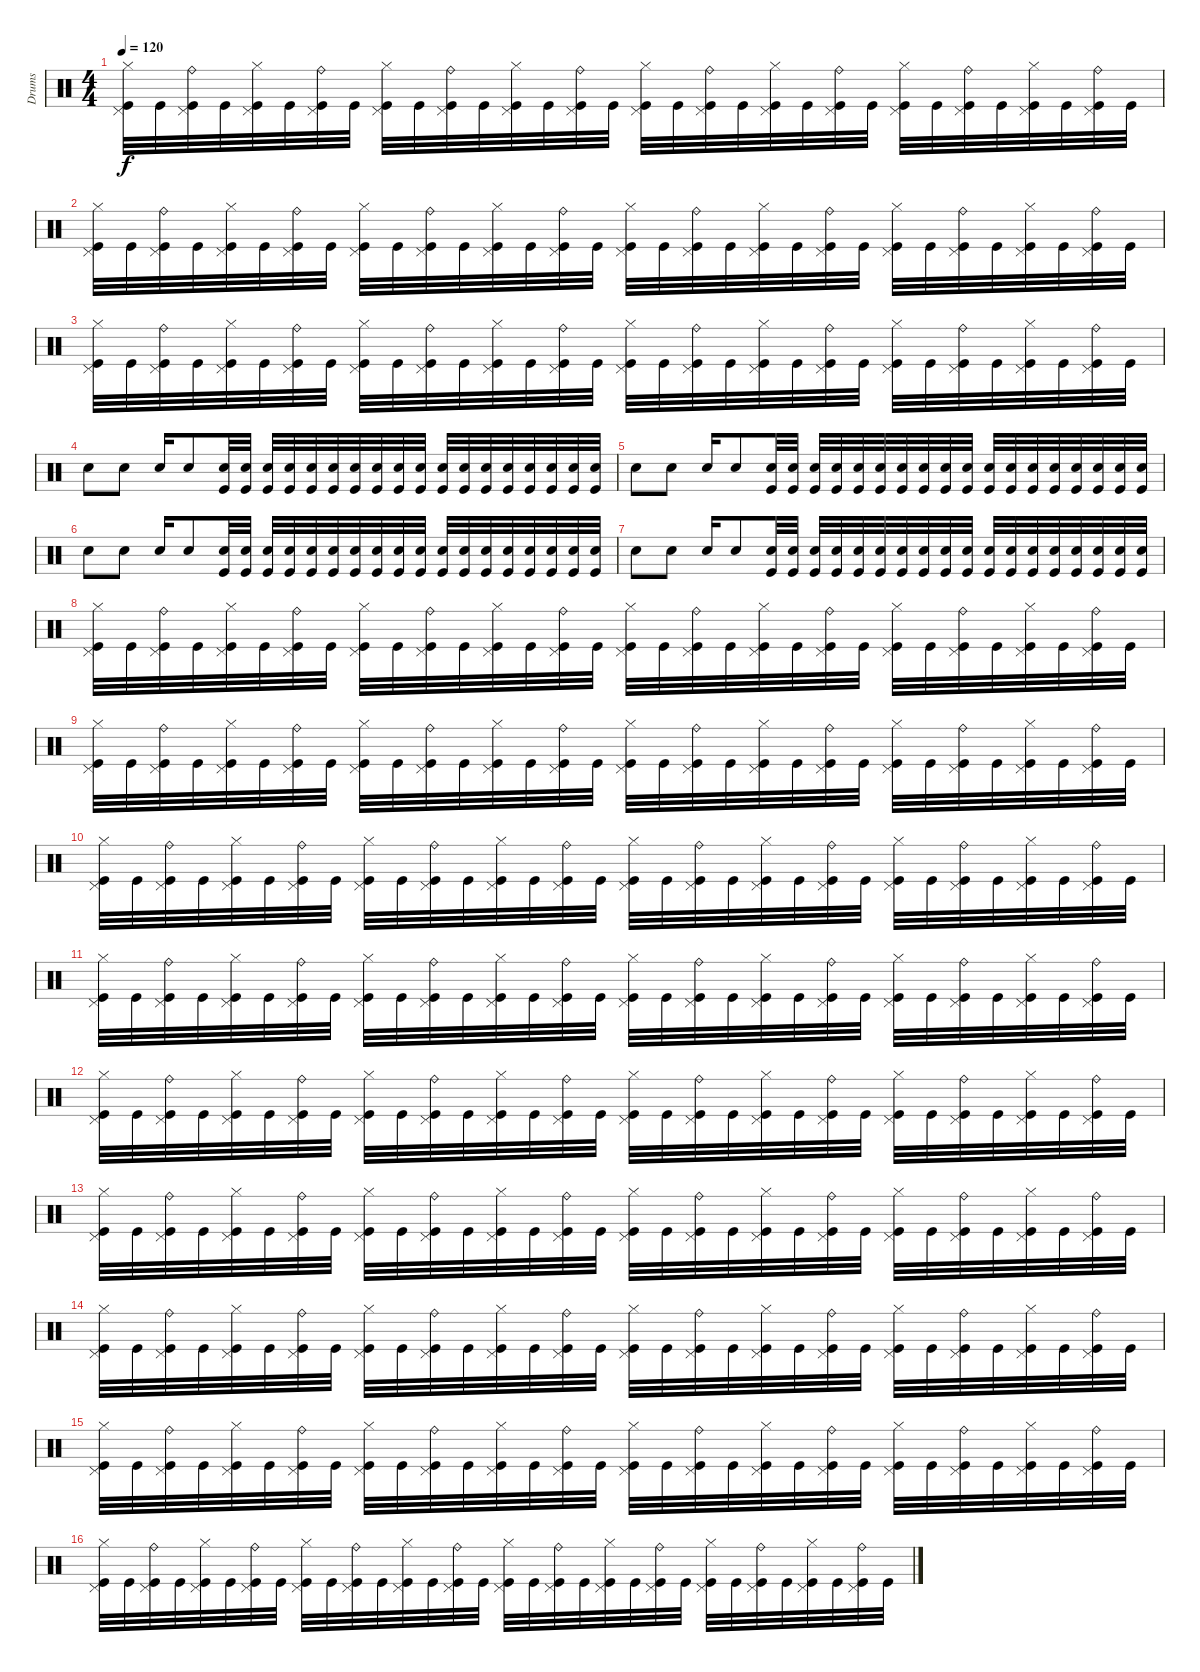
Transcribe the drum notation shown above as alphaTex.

\track ("Drums" "Drums") {instrument percussion}
\staff {score}
\articulation defaults
\ts (4 4)
\tempo 120
\clef neutral
\ks c
("Hi-Hat (closed)" "Pedal Hi-Hat (hit)" "Kick (hit)").32{dy f} "Kick (hit)".32 ("Ride (bell)" "Pedal Hi-Hat (hit)" "Kick (hit)").32 "Kick (hit)".32 ("Hi-Hat (closed)" "Pedal Hi-Hat (hit)" "Kick (hit)").32 "Kick (hit)".32 ("Ride (bell)" "Pedal Hi-Hat (hit)" "Kick (hit)").32 "Kick (hit)".32 ("Hi-Hat (closed)" "Pedal Hi-Hat (hit)" "Kick (hit)").32 "Kick (hit)".32 ("Ride (bell)" "Pedal Hi-Hat (hit)" "Kick (hit)").32 "Kick (hit)".32 ("Hi-Hat (closed)" "Pedal Hi-Hat (hit)" "Kick (hit)").32 "Kick (hit)".32 ("Ride (bell)" "Pedal Hi-Hat (hit)" "Kick (hit)").32 "Kick (hit)".32 ("Hi-Hat (closed)" "Pedal Hi-Hat (hit)" "Kick (hit)").32 "Kick (hit)".32 ("Ride (bell)" "Pedal Hi-Hat (hit)" "Kick (hit)").32 "Kick (hit)".32 ("Hi-Hat (closed)" "Pedal Hi-Hat (hit)" "Kick (hit)").32 "Kick (hit)".32 ("Ride (bell)" "Pedal Hi-Hat (hit)" "Kick (hit)").32 "Kick (hit)".32 ("Hi-Hat (closed)" "Pedal Hi-Hat (hit)" "Kick (hit)").32 "Kick (hit)".32 ("Ride (bell)" "Pedal Hi-Hat (hit)" "Kick (hit)").32 "Kick (hit)".32 ("Hi-Hat (closed)" "Pedal Hi-Hat (hit)" "Kick (hit)").32 "Kick (hit)".32 ("Ride (bell)" "Pedal Hi-Hat (hit)" "Kick (hit)").32 "Kick (hit)".32 |
("Hi-Hat (closed)" "Pedal Hi-Hat (hit)" "Kick (hit)").32 "Kick (hit)".32 ("Ride (bell)" "Pedal Hi-Hat (hit)" "Kick (hit)").32 "Kick (hit)".32 ("Hi-Hat (closed)" "Pedal Hi-Hat (hit)" "Kick (hit)").32 "Kick (hit)".32 ("Ride (bell)" "Pedal Hi-Hat (hit)" "Kick (hit)").32 "Kick (hit)".32 ("Hi-Hat (closed)" "Pedal Hi-Hat (hit)" "Kick (hit)").32 "Kick (hit)".32 ("Ride (bell)" "Pedal Hi-Hat (hit)" "Kick (hit)").32 "Kick (hit)".32 ("Hi-Hat (closed)" "Pedal Hi-Hat (hit)" "Kick (hit)").32 "Kick (hit)".32 ("Ride (bell)" "Pedal Hi-Hat (hit)" "Kick (hit)").32 "Kick (hit)".32 ("Hi-Hat (closed)" "Pedal Hi-Hat (hit)" "Kick (hit)").32 "Kick (hit)".32 ("Ride (bell)" "Pedal Hi-Hat (hit)" "Kick (hit)").32 "Kick (hit)".32 ("Hi-Hat (closed)" "Pedal Hi-Hat (hit)" "Kick (hit)").32 "Kick (hit)".32 ("Ride (bell)" "Pedal Hi-Hat (hit)" "Kick (hit)").32 "Kick (hit)".32 ("Hi-Hat (closed)" "Pedal Hi-Hat (hit)" "Kick (hit)").32 "Kick (hit)".32 ("Ride (bell)" "Pedal Hi-Hat (hit)" "Kick (hit)").32 "Kick (hit)".32 ("Hi-Hat (closed)" "Pedal Hi-Hat (hit)" "Kick (hit)").32 "Kick (hit)".32 ("Ride (bell)" "Pedal Hi-Hat (hit)" "Kick (hit)").32 "Kick (hit)".32 |
("Hi-Hat (closed)" "Pedal Hi-Hat (hit)" "Kick (hit)").32 "Kick (hit)".32 ("Ride (bell)" "Pedal Hi-Hat (hit)" "Kick (hit)").32 "Kick (hit)".32 ("Hi-Hat (closed)" "Pedal Hi-Hat (hit)" "Kick (hit)").32 "Kick (hit)".32 ("Ride (bell)" "Pedal Hi-Hat (hit)" "Kick (hit)").32 "Kick (hit)".32 ("Hi-Hat (closed)" "Pedal Hi-Hat (hit)" "Kick (hit)").32 "Kick (hit)".32 ("Ride (bell)" "Pedal Hi-Hat (hit)" "Kick (hit)").32 "Kick (hit)".32 ("Hi-Hat (closed)" "Pedal Hi-Hat (hit)" "Kick (hit)").32 "Kick (hit)".32 ("Ride (bell)" "Pedal Hi-Hat (hit)" "Kick (hit)").32 "Kick (hit)".32 ("Hi-Hat (closed)" "Pedal Hi-Hat (hit)" "Kick (hit)").32 "Kick (hit)".32 ("Ride (bell)" "Pedal Hi-Hat (hit)" "Kick (hit)").32 "Kick (hit)".32 ("Hi-Hat (closed)" "Pedal Hi-Hat (hit)" "Kick (hit)").32 "Kick (hit)".32 ("Ride (bell)" "Pedal Hi-Hat (hit)" "Kick (hit)").32 "Kick (hit)".32 ("Hi-Hat (closed)" "Pedal Hi-Hat (hit)" "Kick (hit)").32 "Kick (hit)".32 ("Ride (bell)" "Pedal Hi-Hat (hit)" "Kick (hit)").32 "Kick (hit)".32 ("Hi-Hat (closed)" "Pedal Hi-Hat (hit)" "Kick (hit)").32 "Kick (hit)".32 ("Ride (bell)" "Pedal Hi-Hat (hit)" "Kick (hit)").32 "Kick (hit)".32 |
"Electric Snare (hit)".8 "Electric Snare (hit)".8 "Electric Snare (hit)".16 "Electric Snare (hit)".8 ("Kick (hit)" "Electric Snare (hit)").32 ("Kick (hit)" "Electric Snare (hit)").32 ("Kick (hit)" "Electric Snare (hit)").32 ("Kick (hit)" "Electric Snare (hit)").32 ("Kick (hit)" "Electric Snare (hit)").32 ("Kick (hit)" "Electric Snare (hit)").32 ("Kick (hit)" "Electric Snare (hit)").32 ("Kick (hit)" "Electric Snare (hit)").32 ("Kick (hit)" "Electric Snare (hit)").32 ("Kick (hit)" "Electric Snare (hit)").32 ("Kick (hit)" "Electric Snare (hit)").32 ("Kick (hit)" "Electric Snare (hit)").32 ("Kick (hit)" "Electric Snare (hit)").32 ("Kick (hit)" "Electric Snare (hit)").32 ("Kick (hit)" "Electric Snare (hit)").32 ("Kick (hit)" "Electric Snare (hit)").32 ("Kick (hit)" "Electric Snare (hit)").32 ("Kick (hit)" "Electric Snare (hit)").32 |
"Electric Snare (hit)".8 "Electric Snare (hit)".8 "Electric Snare (hit)".16 "Electric Snare (hit)".8 ("Kick (hit)" "Electric Snare (hit)").32 ("Kick (hit)" "Electric Snare (hit)").32 ("Kick (hit)" "Electric Snare (hit)").32 ("Kick (hit)" "Electric Snare (hit)").32 ("Kick (hit)" "Electric Snare (hit)").32 ("Kick (hit)" "Electric Snare (hit)").32 ("Kick (hit)" "Electric Snare (hit)").32 ("Kick (hit)" "Electric Snare (hit)").32 ("Kick (hit)" "Electric Snare (hit)").32 ("Kick (hit)" "Electric Snare (hit)").32 ("Kick (hit)" "Electric Snare (hit)").32 ("Kick (hit)" "Electric Snare (hit)").32 ("Kick (hit)" "Electric Snare (hit)").32 ("Kick (hit)" "Electric Snare (hit)").32 ("Kick (hit)" "Electric Snare (hit)").32 ("Kick (hit)" "Electric Snare (hit)").32 ("Kick (hit)" "Electric Snare (hit)").32 ("Kick (hit)" "Electric Snare (hit)").32 |
"Electric Snare (hit)".8 "Electric Snare (hit)".8 "Electric Snare (hit)".16 "Electric Snare (hit)".8 ("Kick (hit)" "Electric Snare (hit)").32 ("Kick (hit)" "Electric Snare (hit)").32 ("Kick (hit)" "Electric Snare (hit)").32 ("Kick (hit)" "Electric Snare (hit)").32 ("Kick (hit)" "Electric Snare (hit)").32 ("Kick (hit)" "Electric Snare (hit)").32 ("Kick (hit)" "Electric Snare (hit)").32 ("Kick (hit)" "Electric Snare (hit)").32 ("Kick (hit)" "Electric Snare (hit)").32 ("Kick (hit)" "Electric Snare (hit)").32 ("Kick (hit)" "Electric Snare (hit)").32 ("Kick (hit)" "Electric Snare (hit)").32 ("Kick (hit)" "Electric Snare (hit)").32 ("Kick (hit)" "Electric Snare (hit)").32 ("Kick (hit)" "Electric Snare (hit)").32 ("Kick (hit)" "Electric Snare (hit)").32 ("Kick (hit)" "Electric Snare (hit)").32 ("Kick (hit)" "Electric Snare (hit)").32 |
"Electric Snare (hit)".8 "Electric Snare (hit)".8 "Electric Snare (hit)".16 "Electric Snare (hit)".8 ("Kick (hit)" "Electric Snare (hit)").32 ("Kick (hit)" "Electric Snare (hit)").32 ("Kick (hit)" "Electric Snare (hit)").32 ("Kick (hit)" "Electric Snare (hit)").32 ("Kick (hit)" "Electric Snare (hit)").32 ("Kick (hit)" "Electric Snare (hit)").32 ("Kick (hit)" "Electric Snare (hit)").32 ("Kick (hit)" "Electric Snare (hit)").32 ("Kick (hit)" "Electric Snare (hit)").32 ("Kick (hit)" "Electric Snare (hit)").32 ("Kick (hit)" "Electric Snare (hit)").32 ("Kick (hit)" "Electric Snare (hit)").32 ("Kick (hit)" "Electric Snare (hit)").32 ("Kick (hit)" "Electric Snare (hit)").32 ("Kick (hit)" "Electric Snare (hit)").32 ("Kick (hit)" "Electric Snare (hit)").32 ("Kick (hit)" "Electric Snare (hit)").32 ("Kick (hit)" "Electric Snare (hit)").32 |
("Hi-Hat (closed)" "Pedal Hi-Hat (hit)" "Kick (hit)").32 "Kick (hit)".32 ("Ride (bell)" "Pedal Hi-Hat (hit)" "Kick (hit)").32 "Kick (hit)".32 ("Hi-Hat (closed)" "Pedal Hi-Hat (hit)" "Kick (hit)").32 "Kick (hit)".32 ("Ride (bell)" "Pedal Hi-Hat (hit)" "Kick (hit)").32 "Kick (hit)".32 ("Hi-Hat (closed)" "Pedal Hi-Hat (hit)" "Kick (hit)").32 "Kick (hit)".32 ("Ride (bell)" "Pedal Hi-Hat (hit)" "Kick (hit)").32 "Kick (hit)".32 ("Hi-Hat (closed)" "Pedal Hi-Hat (hit)" "Kick (hit)").32 "Kick (hit)".32 ("Ride (bell)" "Pedal Hi-Hat (hit)" "Kick (hit)").32 "Kick (hit)".32 ("Hi-Hat (closed)" "Pedal Hi-Hat (hit)" "Kick (hit)").32 "Kick (hit)".32 ("Ride (bell)" "Pedal Hi-Hat (hit)" "Kick (hit)").32 "Kick (hit)".32 ("Hi-Hat (closed)" "Pedal Hi-Hat (hit)" "Kick (hit)").32 "Kick (hit)".32 ("Ride (bell)" "Pedal Hi-Hat (hit)" "Kick (hit)").32 "Kick (hit)".32 ("Hi-Hat (closed)" "Pedal Hi-Hat (hit)" "Kick (hit)").32 "Kick (hit)".32 ("Ride (bell)" "Pedal Hi-Hat (hit)" "Kick (hit)").32 "Kick (hit)".32 ("Hi-Hat (closed)" "Pedal Hi-Hat (hit)" "Kick (hit)").32 "Kick (hit)".32 ("Ride (bell)" "Pedal Hi-Hat (hit)" "Kick (hit)").32 "Kick (hit)".32 |
("Hi-Hat (closed)" "Pedal Hi-Hat (hit)" "Kick (hit)").32 "Kick (hit)".32 ("Ride (bell)" "Pedal Hi-Hat (hit)" "Kick (hit)").32 "Kick (hit)".32 ("Hi-Hat (closed)" "Pedal Hi-Hat (hit)" "Kick (hit)").32 "Kick (hit)".32 ("Ride (bell)" "Pedal Hi-Hat (hit)" "Kick (hit)").32 "Kick (hit)".32 ("Hi-Hat (closed)" "Pedal Hi-Hat (hit)" "Kick (hit)").32 "Kick (hit)".32 ("Ride (bell)" "Pedal Hi-Hat (hit)" "Kick (hit)").32 "Kick (hit)".32 ("Hi-Hat (closed)" "Pedal Hi-Hat (hit)" "Kick (hit)").32 "Kick (hit)".32 ("Ride (bell)" "Pedal Hi-Hat (hit)" "Kick (hit)").32 "Kick (hit)".32 ("Hi-Hat (closed)" "Pedal Hi-Hat (hit)" "Kick (hit)").32 "Kick (hit)".32 ("Ride (bell)" "Pedal Hi-Hat (hit)" "Kick (hit)").32 "Kick (hit)".32 ("Hi-Hat (closed)" "Pedal Hi-Hat (hit)" "Kick (hit)").32 "Kick (hit)".32 ("Ride (bell)" "Pedal Hi-Hat (hit)" "Kick (hit)").32 "Kick (hit)".32 ("Hi-Hat (closed)" "Pedal Hi-Hat (hit)" "Kick (hit)").32 "Kick (hit)".32 ("Ride (bell)" "Pedal Hi-Hat (hit)" "Kick (hit)").32 "Kick (hit)".32 ("Hi-Hat (closed)" "Pedal Hi-Hat (hit)" "Kick (hit)").32 "Kick (hit)".32 ("Ride (bell)" "Pedal Hi-Hat (hit)" "Kick (hit)").32 "Kick (hit)".32 |
("Hi-Hat (closed)" "Pedal Hi-Hat (hit)" "Kick (hit)").32 "Kick (hit)".32 ("Ride (bell)" "Pedal Hi-Hat (hit)" "Kick (hit)").32 "Kick (hit)".32 ("Hi-Hat (closed)" "Pedal Hi-Hat (hit)" "Kick (hit)").32 "Kick (hit)".32 ("Ride (bell)" "Pedal Hi-Hat (hit)" "Kick (hit)").32 "Kick (hit)".32 ("Hi-Hat (closed)" "Pedal Hi-Hat (hit)" "Kick (hit)").32 "Kick (hit)".32 ("Ride (bell)" "Pedal Hi-Hat (hit)" "Kick (hit)").32 "Kick (hit)".32 ("Hi-Hat (closed)" "Pedal Hi-Hat (hit)" "Kick (hit)").32 "Kick (hit)".32 ("Ride (bell)" "Pedal Hi-Hat (hit)" "Kick (hit)").32 "Kick (hit)".32 ("Hi-Hat (closed)" "Pedal Hi-Hat (hit)" "Kick (hit)").32 "Kick (hit)".32 ("Ride (bell)" "Pedal Hi-Hat (hit)" "Kick (hit)").32 "Kick (hit)".32 ("Hi-Hat (closed)" "Pedal Hi-Hat (hit)" "Kick (hit)").32 "Kick (hit)".32 ("Ride (bell)" "Pedal Hi-Hat (hit)" "Kick (hit)").32 "Kick (hit)".32 ("Hi-Hat (closed)" "Pedal Hi-Hat (hit)" "Kick (hit)").32 "Kick (hit)".32 ("Ride (bell)" "Pedal Hi-Hat (hit)" "Kick (hit)").32 "Kick (hit)".32 ("Hi-Hat (closed)" "Pedal Hi-Hat (hit)" "Kick (hit)").32 "Kick (hit)".32 ("Ride (bell)" "Pedal Hi-Hat (hit)" "Kick (hit)").32 "Kick (hit)".32 |
("Hi-Hat (closed)" "Pedal Hi-Hat (hit)" "Kick (hit)").32 "Kick (hit)".32 ("Ride (bell)" "Pedal Hi-Hat (hit)" "Kick (hit)").32 "Kick (hit)".32 ("Hi-Hat (closed)" "Pedal Hi-Hat (hit)" "Kick (hit)").32 "Kick (hit)".32 ("Ride (bell)" "Pedal Hi-Hat (hit)" "Kick (hit)").32 "Kick (hit)".32 ("Hi-Hat (closed)" "Pedal Hi-Hat (hit)" "Kick (hit)").32 "Kick (hit)".32 ("Ride (bell)" "Pedal Hi-Hat (hit)" "Kick (hit)").32 "Kick (hit)".32 ("Hi-Hat (closed)" "Pedal Hi-Hat (hit)" "Kick (hit)").32 "Kick (hit)".32 ("Ride (bell)" "Pedal Hi-Hat (hit)" "Kick (hit)").32 "Kick (hit)".32 ("Hi-Hat (closed)" "Pedal Hi-Hat (hit)" "Kick (hit)").32 "Kick (hit)".32 ("Ride (bell)" "Pedal Hi-Hat (hit)" "Kick (hit)").32 "Kick (hit)".32 ("Hi-Hat (closed)" "Pedal Hi-Hat (hit)" "Kick (hit)").32 "Kick (hit)".32 ("Ride (bell)" "Pedal Hi-Hat (hit)" "Kick (hit)").32 "Kick (hit)".32 ("Hi-Hat (closed)" "Pedal Hi-Hat (hit)" "Kick (hit)").32 "Kick (hit)".32 ("Ride (bell)" "Pedal Hi-Hat (hit)" "Kick (hit)").32 "Kick (hit)".32 ("Hi-Hat (closed)" "Pedal Hi-Hat (hit)" "Kick (hit)").32 "Kick (hit)".32 ("Ride (bell)" "Pedal Hi-Hat (hit)" "Kick (hit)").32 "Kick (hit)".32 |
("Hi-Hat (closed)" "Pedal Hi-Hat (hit)" "Kick (hit)").32 "Kick (hit)".32 ("Ride (bell)" "Pedal Hi-Hat (hit)" "Kick (hit)").32 "Kick (hit)".32 ("Hi-Hat (closed)" "Pedal Hi-Hat (hit)" "Kick (hit)").32 "Kick (hit)".32 ("Ride (bell)" "Pedal Hi-Hat (hit)" "Kick (hit)").32 "Kick (hit)".32 ("Hi-Hat (closed)" "Pedal Hi-Hat (hit)" "Kick (hit)").32 "Kick (hit)".32 ("Ride (bell)" "Pedal Hi-Hat (hit)" "Kick (hit)").32 "Kick (hit)".32 ("Hi-Hat (closed)" "Pedal Hi-Hat (hit)" "Kick (hit)").32 "Kick (hit)".32 ("Ride (bell)" "Pedal Hi-Hat (hit)" "Kick (hit)").32 "Kick (hit)".32 ("Hi-Hat (closed)" "Pedal Hi-Hat (hit)" "Kick (hit)").32 "Kick (hit)".32 ("Ride (bell)" "Pedal Hi-Hat (hit)" "Kick (hit)").32 "Kick (hit)".32 ("Hi-Hat (closed)" "Pedal Hi-Hat (hit)" "Kick (hit)").32 "Kick (hit)".32 ("Ride (bell)" "Pedal Hi-Hat (hit)" "Kick (hit)").32 "Kick (hit)".32 ("Hi-Hat (closed)" "Pedal Hi-Hat (hit)" "Kick (hit)").32 "Kick (hit)".32 ("Ride (bell)" "Pedal Hi-Hat (hit)" "Kick (hit)").32 "Kick (hit)".32 ("Hi-Hat (closed)" "Pedal Hi-Hat (hit)" "Kick (hit)").32 "Kick (hit)".32 ("Ride (bell)" "Pedal Hi-Hat (hit)" "Kick (hit)").32 "Kick (hit)".32 |
("Hi-Hat (closed)" "Pedal Hi-Hat (hit)" "Kick (hit)").32 "Kick (hit)".32 ("Ride (bell)" "Pedal Hi-Hat (hit)" "Kick (hit)").32 "Kick (hit)".32 ("Hi-Hat (closed)" "Pedal Hi-Hat (hit)" "Kick (hit)").32 "Kick (hit)".32 ("Ride (bell)" "Pedal Hi-Hat (hit)" "Kick (hit)").32 "Kick (hit)".32 ("Hi-Hat (closed)" "Pedal Hi-Hat (hit)" "Kick (hit)").32 "Kick (hit)".32 ("Ride (bell)" "Pedal Hi-Hat (hit)" "Kick (hit)").32 "Kick (hit)".32 ("Hi-Hat (closed)" "Pedal Hi-Hat (hit)" "Kick (hit)").32 "Kick (hit)".32 ("Ride (bell)" "Pedal Hi-Hat (hit)" "Kick (hit)").32 "Kick (hit)".32 ("Hi-Hat (closed)" "Pedal Hi-Hat (hit)" "Kick (hit)").32 "Kick (hit)".32 ("Ride (bell)" "Pedal Hi-Hat (hit)" "Kick (hit)").32 "Kick (hit)".32 ("Hi-Hat (closed)" "Pedal Hi-Hat (hit)" "Kick (hit)").32 "Kick (hit)".32 ("Ride (bell)" "Pedal Hi-Hat (hit)" "Kick (hit)").32 "Kick (hit)".32 ("Hi-Hat (closed)" "Pedal Hi-Hat (hit)" "Kick (hit)").32 "Kick (hit)".32 ("Ride (bell)" "Pedal Hi-Hat (hit)" "Kick (hit)").32 "Kick (hit)".32 ("Hi-Hat (closed)" "Pedal Hi-Hat (hit)" "Kick (hit)").32 "Kick (hit)".32 ("Ride (bell)" "Pedal Hi-Hat (hit)" "Kick (hit)").32 "Kick (hit)".32 |
("Hi-Hat (closed)" "Pedal Hi-Hat (hit)" "Kick (hit)").32 "Kick (hit)".32 ("Ride (bell)" "Pedal Hi-Hat (hit)" "Kick (hit)").32 "Kick (hit)".32 ("Hi-Hat (closed)" "Pedal Hi-Hat (hit)" "Kick (hit)").32 "Kick (hit)".32 ("Ride (bell)" "Pedal Hi-Hat (hit)" "Kick (hit)").32 "Kick (hit)".32 ("Hi-Hat (closed)" "Pedal Hi-Hat (hit)" "Kick (hit)").32 "Kick (hit)".32 ("Ride (bell)" "Pedal Hi-Hat (hit)" "Kick (hit)").32 "Kick (hit)".32 ("Hi-Hat (closed)" "Pedal Hi-Hat (hit)" "Kick (hit)").32 "Kick (hit)".32 ("Ride (bell)" "Pedal Hi-Hat (hit)" "Kick (hit)").32 "Kick (hit)".32 ("Hi-Hat (closed)" "Pedal Hi-Hat (hit)" "Kick (hit)").32 "Kick (hit)".32 ("Ride (bell)" "Pedal Hi-Hat (hit)" "Kick (hit)").32 "Kick (hit)".32 ("Hi-Hat (closed)" "Pedal Hi-Hat (hit)" "Kick (hit)").32 "Kick (hit)".32 ("Ride (bell)" "Pedal Hi-Hat (hit)" "Kick (hit)").32 "Kick (hit)".32 ("Hi-Hat (closed)" "Pedal Hi-Hat (hit)" "Kick (hit)").32 "Kick (hit)".32 ("Ride (bell)" "Pedal Hi-Hat (hit)" "Kick (hit)").32 "Kick (hit)".32 ("Hi-Hat (closed)" "Pedal Hi-Hat (hit)" "Kick (hit)").32 "Kick (hit)".32 ("Ride (bell)" "Pedal Hi-Hat (hit)" "Kick (hit)").32 "Kick (hit)".32 |
("Hi-Hat (closed)" "Pedal Hi-Hat (hit)" "Kick (hit)").32 "Kick (hit)".32 ("Ride (bell)" "Pedal Hi-Hat (hit)" "Kick (hit)").32 "Kick (hit)".32 ("Hi-Hat (closed)" "Pedal Hi-Hat (hit)" "Kick (hit)").32 "Kick (hit)".32 ("Ride (bell)" "Pedal Hi-Hat (hit)" "Kick (hit)").32 "Kick (hit)".32 ("Hi-Hat (closed)" "Pedal Hi-Hat (hit)" "Kick (hit)").32 "Kick (hit)".32 ("Ride (bell)" "Pedal Hi-Hat (hit)" "Kick (hit)").32 "Kick (hit)".32 ("Hi-Hat (closed)" "Pedal Hi-Hat (hit)" "Kick (hit)").32 "Kick (hit)".32 ("Ride (bell)" "Pedal Hi-Hat (hit)" "Kick (hit)").32 "Kick (hit)".32 ("Hi-Hat (closed)" "Pedal Hi-Hat (hit)" "Kick (hit)").32 "Kick (hit)".32 ("Ride (bell)" "Pedal Hi-Hat (hit)" "Kick (hit)").32 "Kick (hit)".32 ("Hi-Hat (closed)" "Pedal Hi-Hat (hit)" "Kick (hit)").32 "Kick (hit)".32 ("Ride (bell)" "Pedal Hi-Hat (hit)" "Kick (hit)").32 "Kick (hit)".32 ("Hi-Hat (closed)" "Pedal Hi-Hat (hit)" "Kick (hit)").32 "Kick (hit)".32 ("Ride (bell)" "Pedal Hi-Hat (hit)" "Kick (hit)").32 "Kick (hit)".32 ("Hi-Hat (closed)" "Pedal Hi-Hat (hit)" "Kick (hit)").32 "Kick (hit)".32 ("Ride (bell)" "Pedal Hi-Hat (hit)" "Kick (hit)").32 "Kick (hit)".32 |
("Hi-Hat (closed)" "Pedal Hi-Hat (hit)" "Kick (hit)").32 "Kick (hit)".32 ("Ride (bell)" "Pedal Hi-Hat (hit)" "Kick (hit)").32 "Kick (hit)".32 ("Hi-Hat (closed)" "Pedal Hi-Hat (hit)" "Kick (hit)").32 "Kick (hit)".32 ("Ride (bell)" "Pedal Hi-Hat (hit)" "Kick (hit)").32 "Kick (hit)".32 ("Hi-Hat (closed)" "Pedal Hi-Hat (hit)" "Kick (hit)").32 "Kick (hit)".32 ("Ride (bell)" "Pedal Hi-Hat (hit)" "Kick (hit)").32 "Kick (hit)".32 ("Hi-Hat (closed)" "Pedal Hi-Hat (hit)" "Kick (hit)").32 "Kick (hit)".32 ("Ride (bell)" "Pedal Hi-Hat (hit)" "Kick (hit)").32 "Kick (hit)".32 ("Hi-Hat (closed)" "Pedal Hi-Hat (hit)" "Kick (hit)").32 "Kick (hit)".32 ("Ride (bell)" "Pedal Hi-Hat (hit)" "Kick (hit)").32 "Kick (hit)".32 ("Hi-Hat (closed)" "Pedal Hi-Hat (hit)" "Kick (hit)").32 "Kick (hit)".32 ("Ride (bell)" "Pedal Hi-Hat (hit)" "Kick (hit)").32 "Kick (hit)".32 ("Hi-Hat (closed)" "Pedal Hi-Hat (hit)" "Kick (hit)").32 "Kick (hit)".32 ("Ride (bell)" "Pedal Hi-Hat (hit)" "Kick (hit)").32 "Kick (hit)".32 ("Hi-Hat (closed)" "Pedal Hi-Hat (hit)" "Kick (hit)").32 "Kick (hit)".32 ("Ride (bell)" "Pedal Hi-Hat (hit)" "Kick (hit)").32 "Kick (hit)".32
